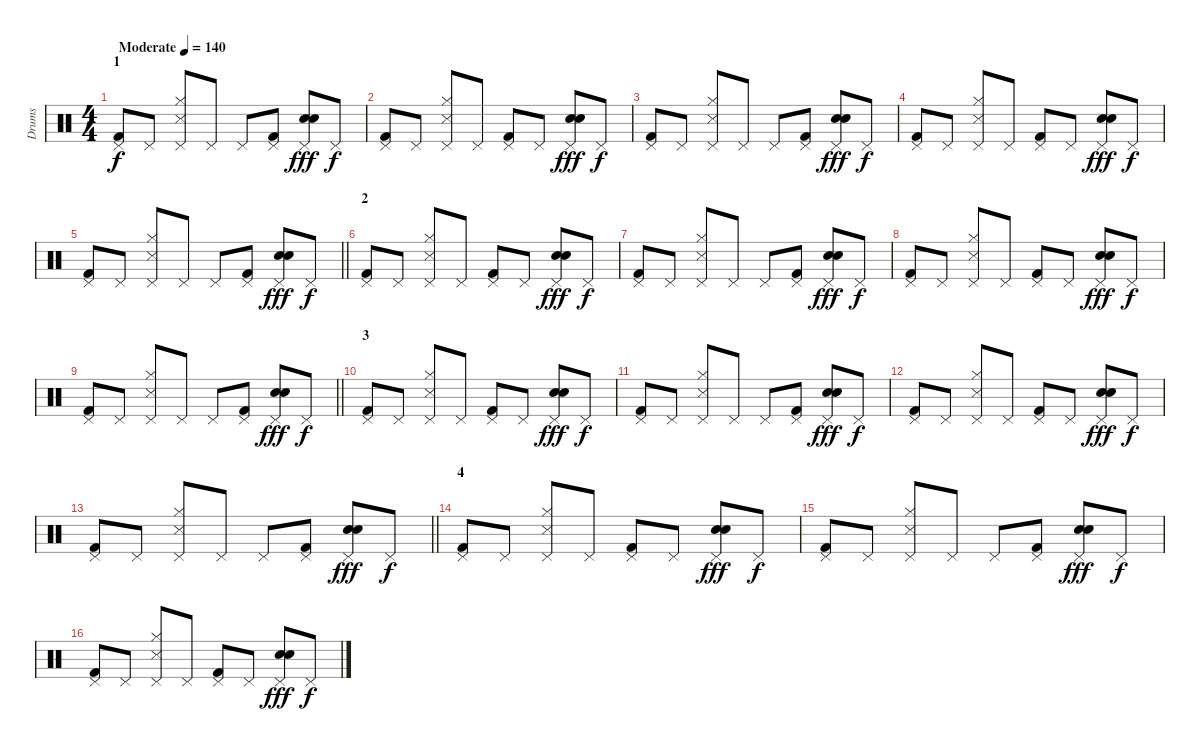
\track ("Drums" "Drums") {instrument percussion}
\staff {score}
\articulation defaults
\ts (4 4)
\section ("" "1")
\tempo (140 "Moderate")
\clef neutral
\ks c
("Pedal Hi-Hat (hit)" "Kick (hit) 2").8{dy f} "Pedal Hi-Hat (hit)".8 ("Pedal Hi-Hat (hit)" "Hi-Hat (closed)" "Snare (side stick) 3").8 "Pedal Hi-Hat (hit)".8 "Pedal Hi-Hat (hit)".8 ("Pedal Hi-Hat (hit)" "Kick (hit) 2").8 ("Pedal Hi-Hat (hit)" "Hand Clap (hit)" "Hand Clap (hit)").8{dy fff} "Pedal Hi-Hat (hit)".8{dy f} |
("Pedal Hi-Hat (hit)" "Kick (hit) 2").8 "Pedal Hi-Hat (hit)".8 ("Pedal Hi-Hat (hit)" "Hi-Hat (closed)" "Snare (side stick) 3").8 "Pedal Hi-Hat (hit)".8 ("Pedal Hi-Hat (hit)" "Kick (hit) 2").8 "Pedal Hi-Hat (hit)".8 ("Pedal Hi-Hat (hit)" "Hand Clap (hit)" "Hand Clap (hit)").8{dy fff} "Pedal Hi-Hat (hit)".8{dy f} |
("Pedal Hi-Hat (hit)" "Kick (hit) 2").8 "Pedal Hi-Hat (hit)".8 ("Pedal Hi-Hat (hit)" "Hi-Hat (closed)" "Snare (side stick) 3").8 "Pedal Hi-Hat (hit)".8 "Pedal Hi-Hat (hit)".8 ("Pedal Hi-Hat (hit)" "Kick (hit) 2").8 ("Pedal Hi-Hat (hit)" "Hand Clap (hit)" "Hand Clap (hit)").8{dy fff} "Pedal Hi-Hat (hit)".8{dy f} |
("Pedal Hi-Hat (hit)" "Kick (hit) 2").8 "Pedal Hi-Hat (hit)".8 ("Pedal Hi-Hat (hit)" "Hi-Hat (closed)" "Snare (side stick) 3").8 "Pedal Hi-Hat (hit)".8 ("Pedal Hi-Hat (hit)" "Kick (hit) 2").8 "Pedal Hi-Hat (hit)".8 ("Pedal Hi-Hat (hit)" "Hand Clap (hit)" "Hand Clap (hit)").8{dy fff} "Pedal Hi-Hat (hit)".8{dy f} |
\barLineRight lightlight
("Pedal Hi-Hat (hit)" "Kick (hit) 2").8 "Pedal Hi-Hat (hit)".8 ("Pedal Hi-Hat (hit)" "Hi-Hat (closed)" "Snare (side stick) 3").8 "Pedal Hi-Hat (hit)".8 "Pedal Hi-Hat (hit)".8 ("Pedal Hi-Hat (hit)" "Kick (hit) 2").8 ("Pedal Hi-Hat (hit)" "Hand Clap (hit)" "Hand Clap (hit)").8{dy fff} "Pedal Hi-Hat (hit)".8{dy f} |
\section ("" "2")
("Pedal Hi-Hat (hit)" "Kick (hit) 2").8 "Pedal Hi-Hat (hit)".8 ("Pedal Hi-Hat (hit)" "Hi-Hat (closed)" "Snare (side stick) 3").8 "Pedal Hi-Hat (hit)".8 ("Pedal Hi-Hat (hit)" "Kick (hit) 2").8 "Pedal Hi-Hat (hit)".8 ("Pedal Hi-Hat (hit)" "Hand Clap (hit)" "Hand Clap (hit)").8{dy fff} "Pedal Hi-Hat (hit)".8{dy f} |
("Pedal Hi-Hat (hit)" "Kick (hit) 2").8 "Pedal Hi-Hat (hit)".8 ("Pedal Hi-Hat (hit)" "Hi-Hat (closed)" "Snare (side stick) 3").8 "Pedal Hi-Hat (hit)".8 "Pedal Hi-Hat (hit)".8 ("Pedal Hi-Hat (hit)" "Kick (hit) 2").8 ("Pedal Hi-Hat (hit)" "Hand Clap (hit)" "Hand Clap (hit)").8{dy fff} "Pedal Hi-Hat (hit)".8{dy f} |
("Pedal Hi-Hat (hit)" "Kick (hit) 2").8 "Pedal Hi-Hat (hit)".8 ("Pedal Hi-Hat (hit)" "Hi-Hat (closed)" "Snare (side stick) 3").8 "Pedal Hi-Hat (hit)".8 ("Pedal Hi-Hat (hit)" "Kick (hit) 2").8 "Pedal Hi-Hat (hit)".8 ("Pedal Hi-Hat (hit)" "Hand Clap (hit)" "Hand Clap (hit)").8{dy fff} "Pedal Hi-Hat (hit)".8{dy f} |
\barLineRight lightlight
("Pedal Hi-Hat (hit)" "Kick (hit) 2").8 "Pedal Hi-Hat (hit)".8 ("Pedal Hi-Hat (hit)" "Hi-Hat (closed)" "Snare (side stick) 3").8 "Pedal Hi-Hat (hit)".8 "Pedal Hi-Hat (hit)".8 ("Pedal Hi-Hat (hit)" "Kick (hit) 2").8 ("Pedal Hi-Hat (hit)" "Hand Clap (hit)" "Hand Clap (hit)").8{dy fff} "Pedal Hi-Hat (hit)".8{dy f} |
\section ("" "3")
("Pedal Hi-Hat (hit)" "Kick (hit) 2").8 "Pedal Hi-Hat (hit)".8 ("Pedal Hi-Hat (hit)" "Hi-Hat (closed)" "Snare (side stick) 3").8 "Pedal Hi-Hat (hit)".8 ("Pedal Hi-Hat (hit)" "Kick (hit) 2").8 "Pedal Hi-Hat (hit)".8 ("Pedal Hi-Hat (hit)" "Hand Clap (hit)" "Hand Clap (hit)").8{dy fff} "Pedal Hi-Hat (hit)".8{dy f} |
("Pedal Hi-Hat (hit)" "Kick (hit) 2").8 "Pedal Hi-Hat (hit)".8 ("Pedal Hi-Hat (hit)" "Hi-Hat (closed)" "Snare (side stick) 3").8 "Pedal Hi-Hat (hit)".8 "Pedal Hi-Hat (hit)".8 ("Pedal Hi-Hat (hit)" "Kick (hit) 2").8 ("Pedal Hi-Hat (hit)" "Hand Clap (hit)" "Hand Clap (hit)").8{dy fff} "Pedal Hi-Hat (hit)".8{dy f} |
("Pedal Hi-Hat (hit)" "Kick (hit) 2").8 "Pedal Hi-Hat (hit)".8 ("Pedal Hi-Hat (hit)" "Hi-Hat (closed)" "Snare (side stick) 3").8 "Pedal Hi-Hat (hit)".8 ("Pedal Hi-Hat (hit)" "Kick (hit) 2").8 "Pedal Hi-Hat (hit)".8 ("Pedal Hi-Hat (hit)" "Hand Clap (hit)" "Hand Clap (hit)").8{dy fff} "Pedal Hi-Hat (hit)".8{dy f} |
\barLineRight lightlight
("Pedal Hi-Hat (hit)" "Kick (hit) 2").8 "Pedal Hi-Hat (hit)".8 ("Pedal Hi-Hat (hit)" "Hi-Hat (closed)" "Snare (side stick) 3").8 "Pedal Hi-Hat (hit)".8 "Pedal Hi-Hat (hit)".8 ("Pedal Hi-Hat (hit)" "Kick (hit) 2").8 ("Pedal Hi-Hat (hit)" "Hand Clap (hit)" "Hand Clap (hit)").8{dy fff} "Pedal Hi-Hat (hit)".8{dy f} |
\section ("" "4")
("Pedal Hi-Hat (hit)" "Kick (hit) 2").8 "Pedal Hi-Hat (hit)".8 ("Pedal Hi-Hat (hit)" "Hi-Hat (closed)" "Snare (side stick) 3").8 "Pedal Hi-Hat (hit)".8 ("Pedal Hi-Hat (hit)" "Kick (hit) 2").8 "Pedal Hi-Hat (hit)".8 ("Pedal Hi-Hat (hit)" "Hand Clap (hit)" "Hand Clap (hit)").8{dy fff} "Pedal Hi-Hat (hit)".8{dy f} |
("Pedal Hi-Hat (hit)" "Kick (hit) 2").8 "Pedal Hi-Hat (hit)".8 ("Pedal Hi-Hat (hit)" "Hi-Hat (closed)" "Snare (side stick) 3").8 "Pedal Hi-Hat (hit)".8 "Pedal Hi-Hat (hit)".8 ("Pedal Hi-Hat (hit)" "Kick (hit) 2").8 ("Pedal Hi-Hat (hit)" "Hand Clap (hit)" "Hand Clap (hit)").8{dy fff} "Pedal Hi-Hat (hit)".8{dy f} |
("Pedal Hi-Hat (hit)" "Kick (hit) 2").8 "Pedal Hi-Hat (hit)".8 ("Pedal Hi-Hat (hit)" "Hi-Hat (closed)" "Snare (side stick) 3").8 "Pedal Hi-Hat (hit)".8 ("Pedal Hi-Hat (hit)" "Kick (hit) 2").8 "Pedal Hi-Hat (hit)".8 ("Pedal Hi-Hat (hit)" "Hand Clap (hit)" "Hand Clap (hit)").8{dy fff} "Pedal Hi-Hat (hit)".8{dy f}
